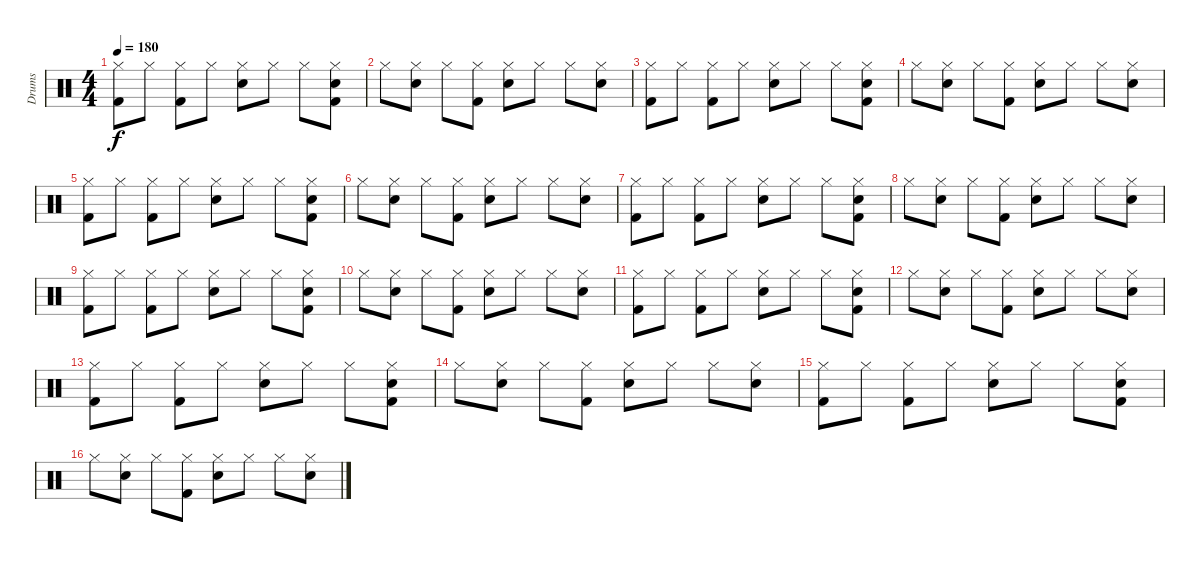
\track ("Drums" "Drums") {instrument percussion}
\staff {score}
\articulation defaults
\ts (4 4)
\tempo 180
\clef neutral
\ks c
("Hi-Hat (closed)" "Kick (hit) 2").8{dy f} "Hi-Hat (closed)".8 ("Hi-Hat (closed)" "Kick (hit) 2").8 "Hi-Hat (closed)".8 ("Hi-Hat (closed)" "Snare (hit) 2").8 "Hi-Hat (closed)".8 "Hi-Hat (closed)".8 ("Hi-Hat (closed)" "Snare (hit) 2" "Kick (hit) 2").8 |
"Hi-Hat (closed)".8 ("Hi-Hat (closed)" "Snare (hit) 2").8 "Hi-Hat (closed)".8 ("Hi-Hat (closed)" "Kick (hit) 2").8 ("Hi-Hat (closed)" "Snare (hit) 2").8 "Hi-Hat (closed)".8 "Hi-Hat (closed)".8 ("Hi-Hat (closed)" "Snare (hit) 2").8 |
("Hi-Hat (closed)" "Kick (hit) 2").8 "Hi-Hat (closed)".8 ("Hi-Hat (closed)" "Kick (hit) 2").8 "Hi-Hat (closed)".8 ("Hi-Hat (closed)" "Snare (hit) 2").8 "Hi-Hat (closed)".8 "Hi-Hat (closed)".8 ("Hi-Hat (closed)" "Snare (hit) 2" "Kick (hit) 2").8 |
"Hi-Hat (closed)".8 ("Hi-Hat (closed)" "Snare (hit) 2").8 "Hi-Hat (closed)".8 ("Hi-Hat (closed)" "Kick (hit) 2").8 ("Hi-Hat (closed)" "Snare (hit) 2").8 "Hi-Hat (closed)".8 "Hi-Hat (closed)".8 ("Hi-Hat (closed)" "Snare (hit) 2").8 |
("Hi-Hat (closed)" "Kick (hit) 2").8 "Hi-Hat (closed)".8 ("Hi-Hat (closed)" "Kick (hit) 2").8 "Hi-Hat (closed)".8 ("Hi-Hat (closed)" "Snare (hit) 2").8 "Hi-Hat (closed)".8 "Hi-Hat (closed)".8 ("Hi-Hat (closed)" "Snare (hit) 2" "Kick (hit) 2").8 |
"Hi-Hat (closed)".8 ("Hi-Hat (closed)" "Snare (hit) 2").8 "Hi-Hat (closed)".8 ("Hi-Hat (closed)" "Kick (hit) 2").8 ("Hi-Hat (closed)" "Snare (hit) 2").8 "Hi-Hat (closed)".8 "Hi-Hat (closed)".8 ("Hi-Hat (closed)" "Snare (hit) 2").8 |
("Hi-Hat (closed)" "Kick (hit) 2").8 "Hi-Hat (closed)".8 ("Hi-Hat (closed)" "Kick (hit) 2").8 "Hi-Hat (closed)".8 ("Hi-Hat (closed)" "Snare (hit) 2").8 "Hi-Hat (closed)".8 "Hi-Hat (closed)".8 ("Hi-Hat (closed)" "Snare (hit) 2" "Kick (hit) 2").8 |
"Hi-Hat (closed)".8 ("Hi-Hat (closed)" "Snare (hit) 2").8 "Hi-Hat (closed)".8 ("Hi-Hat (closed)" "Kick (hit) 2").8 ("Hi-Hat (closed)" "Snare (hit) 2").8 "Hi-Hat (closed)".8 "Hi-Hat (closed)".8 ("Hi-Hat (closed)" "Snare (hit) 2").8 |
("Hi-Hat (closed)" "Kick (hit) 2").8 "Hi-Hat (closed)".8 ("Hi-Hat (closed)" "Kick (hit) 2").8 "Hi-Hat (closed)".8 ("Hi-Hat (closed)" "Snare (hit) 2").8 "Hi-Hat (closed)".8 "Hi-Hat (closed)".8 ("Hi-Hat (closed)" "Snare (hit) 2" "Kick (hit) 2").8 |
"Hi-Hat (closed)".8 ("Hi-Hat (closed)" "Snare (hit) 2").8 "Hi-Hat (closed)".8 ("Hi-Hat (closed)" "Kick (hit) 2").8 ("Hi-Hat (closed)" "Snare (hit) 2").8 "Hi-Hat (closed)".8 "Hi-Hat (closed)".8 ("Hi-Hat (closed)" "Snare (hit) 2").8 |
("Hi-Hat (closed)" "Kick (hit) 2").8 "Hi-Hat (closed)".8 ("Hi-Hat (closed)" "Kick (hit) 2").8 "Hi-Hat (closed)".8 ("Hi-Hat (closed)" "Snare (hit) 2").8 "Hi-Hat (closed)".8 "Hi-Hat (closed)".8 ("Hi-Hat (closed)" "Snare (hit) 2" "Kick (hit) 2").8 |
"Hi-Hat (closed)".8 ("Hi-Hat (closed)" "Snare (hit) 2").8 "Hi-Hat (closed)".8 ("Hi-Hat (closed)" "Kick (hit) 2").8 ("Hi-Hat (closed)" "Snare (hit) 2").8 "Hi-Hat (closed)".8 "Hi-Hat (closed)".8 ("Hi-Hat (closed)" "Snare (hit) 2").8 |
("Hi-Hat (closed)" "Kick (hit) 2").8 "Hi-Hat (closed)".8 ("Hi-Hat (closed)" "Kick (hit) 2").8 "Hi-Hat (closed)".8 ("Hi-Hat (closed)" "Snare (hit) 2").8 "Hi-Hat (closed)".8 "Hi-Hat (closed)".8 ("Hi-Hat (closed)" "Snare (hit) 2" "Kick (hit) 2").8 |
"Hi-Hat (closed)".8 ("Hi-Hat (closed)" "Snare (hit) 2").8 "Hi-Hat (closed)".8 ("Hi-Hat (closed)" "Kick (hit) 2").8 ("Hi-Hat (closed)" "Snare (hit) 2").8 "Hi-Hat (closed)".8 "Hi-Hat (closed)".8 ("Hi-Hat (closed)" "Snare (hit) 2").8 |
("Hi-Hat (closed)" "Kick (hit) 2").8 "Hi-Hat (closed)".8 ("Hi-Hat (closed)" "Kick (hit) 2").8 "Hi-Hat (closed)".8 ("Hi-Hat (closed)" "Snare (hit) 2").8 "Hi-Hat (closed)".8 "Hi-Hat (closed)".8 ("Hi-Hat (closed)" "Snare (hit) 2" "Kick (hit) 2").8 |
"Hi-Hat (closed)".8 ("Hi-Hat (closed)" "Snare (hit) 2").8 "Hi-Hat (closed)".8 ("Hi-Hat (closed)" "Kick (hit) 2").8 ("Hi-Hat (closed)" "Snare (hit) 2").8 "Hi-Hat (closed)".8 "Hi-Hat (closed)".8 ("Hi-Hat (closed)" "Snare (hit) 2").8
